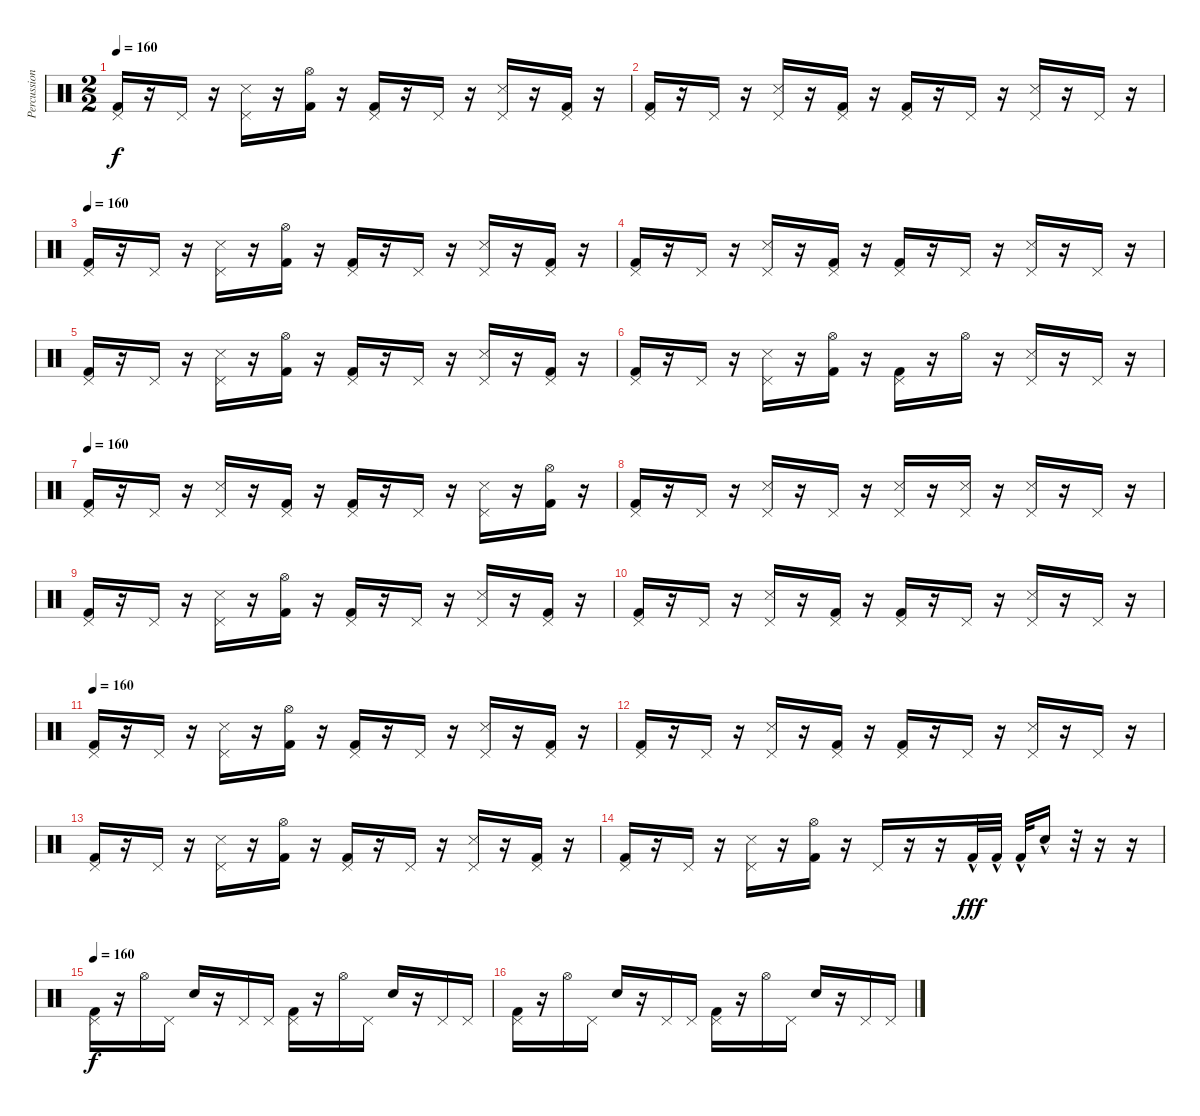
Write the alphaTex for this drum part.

\track ("Percussion" "Percussion") {instrument percussion}
\staff {score}
\articulation defaults
\ts (2 2)
\tempo 160
\clef neutral
\ks c
("Pedal Hi-Hat (hit)" "Kick (hit) 2").16{dy f} r.16 "Pedal Hi-Hat (hit)".16 r.16 ("Pedal Hi-Hat (hit)" "Metronome (hit)").16 r.16 ("Hi-Hat (open)" "Kick (hit) 2").16 r.16 ("Pedal Hi-Hat (hit)" "Kick (hit) 2").16 r.16 "Pedal Hi-Hat (hit)".16 r.16 ("Pedal Hi-Hat (hit)" "Metronome (hit)").16 r.16 ("Pedal Hi-Hat (hit)" "Kick (hit) 2").16 r.16 |
("Pedal Hi-Hat (hit)" "Kick (hit) 2").16 r.16 "Pedal Hi-Hat (hit)".16 r.16 ("Pedal Hi-Hat (hit)" "Metronome (hit)").16 r.16 ("Pedal Hi-Hat (hit)" "Kick (hit) 2").16 r.16 ("Pedal Hi-Hat (hit)" "Kick (hit) 2").16 r.16 "Pedal Hi-Hat (hit)".16 r.16 ("Pedal Hi-Hat (hit)" "Metronome (hit)").16 r.16 "Pedal Hi-Hat (hit)".16 r.16 |
\tempo 160
("Pedal Hi-Hat (hit)" "Kick (hit) 2").16 r.16 "Pedal Hi-Hat (hit)".16 r.16 ("Pedal Hi-Hat (hit)" "Metronome (hit)").16 r.16 ("Hi-Hat (open)" "Kick (hit) 2").16 r.16 ("Pedal Hi-Hat (hit)" "Kick (hit) 2").16 r.16 "Pedal Hi-Hat (hit)".16 r.16 ("Pedal Hi-Hat (hit)" "Metronome (hit)").16 r.16 ("Pedal Hi-Hat (hit)" "Kick (hit) 2").16 r.16 |
("Pedal Hi-Hat (hit)" "Kick (hit) 2").16 r.16 "Pedal Hi-Hat (hit)".16 r.16 ("Pedal Hi-Hat (hit)" "Metronome (hit)").16 r.16 ("Pedal Hi-Hat (hit)" "Kick (hit) 2").16 r.16 ("Pedal Hi-Hat (hit)" "Kick (hit) 2").16 r.16 "Pedal Hi-Hat (hit)".16 r.16 ("Pedal Hi-Hat (hit)" "Metronome (hit)").16 r.16 "Pedal Hi-Hat (hit)".16 r.16 |
("Pedal Hi-Hat (hit)" "Kick (hit) 2").16 r.16 "Pedal Hi-Hat (hit)".16 r.16 ("Pedal Hi-Hat (hit)" "Metronome (hit)").16 r.16 ("Hi-Hat (open)" "Kick (hit) 2").16 r.16 ("Pedal Hi-Hat (hit)" "Kick (hit) 2").16 r.16 "Pedal Hi-Hat (hit)".16 r.16 ("Pedal Hi-Hat (hit)" "Metronome (hit)").16 r.16 ("Pedal Hi-Hat (hit)" "Kick (hit) 2").16 r.16 |
("Pedal Hi-Hat (hit)" "Kick (hit) 2").16 r.16 "Pedal Hi-Hat (hit)".16 r.16 ("Pedal Hi-Hat (hit)" "Metronome (hit)").16 r.16 ("Hi-Hat (open)" "Kick (hit) 2").16 r.16 ("Pedal Hi-Hat (hit)" "Kick (hit) 2").16 r.16 "Hi-Hat (open)".16 r.16 ("Pedal Hi-Hat (hit)" "Metronome (hit)").16 r.16 "Pedal Hi-Hat (hit)".16 r.16 |
\tempo 160
("Pedal Hi-Hat (hit)" "Kick (hit) 2").16 r.16 "Pedal Hi-Hat (hit)".16 r.16 ("Pedal Hi-Hat (hit)" "Metronome (hit)").16 r.16 ("Pedal Hi-Hat (hit)" "Kick (hit) 2").16 r.16 ("Pedal Hi-Hat (hit)" "Kick (hit) 2").16 r.16 "Pedal Hi-Hat (hit)".16 r.16 ("Pedal Hi-Hat (hit)" "Metronome (hit)").16 r.16 ("Hi-Hat (open)" "Kick (hit) 2").16 r.16 |
("Pedal Hi-Hat (hit)" "Kick (hit) 2").16 r.16 "Pedal Hi-Hat (hit)".16 r.16 ("Pedal Hi-Hat (hit)" "Metronome (hit)").16 r.16 "Pedal Hi-Hat (hit)".16 r.16 ("Pedal Hi-Hat (hit)" "Metronome (hit)").16 r.16 ("Pedal Hi-Hat (hit)" "Metronome (hit)").16 r.16 ("Pedal Hi-Hat (hit)" "Metronome (hit)").16 r.16 "Pedal Hi-Hat (hit)".16 r.16 |
("Pedal Hi-Hat (hit)" "Kick (hit) 2").16 r.16 "Pedal Hi-Hat (hit)".16 r.16 ("Pedal Hi-Hat (hit)" "Metronome (hit)").16 r.16 ("Hi-Hat (open)" "Kick (hit) 2").16 r.16 ("Pedal Hi-Hat (hit)" "Kick (hit) 2").16 r.16 "Pedal Hi-Hat (hit)".16 r.16 ("Pedal Hi-Hat (hit)" "Metronome (hit)").16 r.16 ("Pedal Hi-Hat (hit)" "Kick (hit) 2").16 r.16 |
("Pedal Hi-Hat (hit)" "Kick (hit) 2").16 r.16 "Pedal Hi-Hat (hit)".16 r.16 ("Pedal Hi-Hat (hit)" "Metronome (hit)").16 r.16 ("Pedal Hi-Hat (hit)" "Kick (hit) 2").16 r.16 ("Pedal Hi-Hat (hit)" "Kick (hit) 2").16 r.16 "Pedal Hi-Hat (hit)".16 r.16 ("Pedal Hi-Hat (hit)" "Metronome (hit)").16 r.16 "Pedal Hi-Hat (hit)".16 r.16 |
\tempo 160
("Pedal Hi-Hat (hit)" "Kick (hit) 2").16 r.16 "Pedal Hi-Hat (hit)".16 r.16 ("Pedal Hi-Hat (hit)" "Metronome (hit)").16 r.16 ("Hi-Hat (open)" "Kick (hit) 2").16 r.16 ("Pedal Hi-Hat (hit)" "Kick (hit) 2").16 r.16 "Pedal Hi-Hat (hit)".16 r.16 ("Pedal Hi-Hat (hit)" "Metronome (hit)").16 r.16 ("Pedal Hi-Hat (hit)" "Kick (hit) 2").16 r.16 |
("Pedal Hi-Hat (hit)" "Kick (hit) 2").16 r.16 "Pedal Hi-Hat (hit)".16 r.16 ("Pedal Hi-Hat (hit)" "Metronome (hit)").16 r.16 ("Pedal Hi-Hat (hit)" "Kick (hit) 2").16 r.16 ("Pedal Hi-Hat (hit)" "Kick (hit) 2").16 r.16 "Pedal Hi-Hat (hit)".16 r.16 ("Pedal Hi-Hat (hit)" "Metronome (hit)").16 r.16 "Pedal Hi-Hat (hit)".16 r.16 |
("Pedal Hi-Hat (hit)" "Kick (hit) 2").16 r.16 "Pedal Hi-Hat (hit)".16 r.16 ("Pedal Hi-Hat (hit)" "Metronome (hit)").16 r.16 ("Hi-Hat (open)" "Kick (hit) 2").16 r.16 ("Pedal Hi-Hat (hit)" "Kick (hit) 2").16 r.16 "Pedal Hi-Hat (hit)".16 r.16 ("Pedal Hi-Hat (hit)" "Metronome (hit)").16 r.16 ("Pedal Hi-Hat (hit)" "Kick (hit) 2").16 r.16 |
("Pedal Hi-Hat (hit)" "Kick (hit) 2").16 r.16 "Pedal Hi-Hat (hit)".16 r.16 ("Pedal Hi-Hat (hit)" "Metronome (hit)").16 r.16 ("Hi-Hat (open)" "Kick (hit) 2").16 r.16 "Pedal Hi-Hat (hit)".16 r.16 r.16 "Kick (hit) 2"{hac}.32{dy fff} "Kick (hit) 2"{hac}.32 "Kick (hit) 2"{hac}.32 "Snare (hit) 2"{hac}.16 r.32 r.16 r.16 |
\tempo 160
("Kick (hit) 2" "Pedal Hi-Hat (hit)").16{dy f} r.16 "Hi-Hat (open)".16 "Pedal Hi-Hat (hit)".16 "Snare (hit) 2".16 r.16 "Pedal Hi-Hat (hit)".16 "Pedal Hi-Hat (hit)".16 ("Kick (hit) 2" "Pedal Hi-Hat (hit)").16 r.16 "Hi-Hat (open)".16 "Pedal Hi-Hat (hit)".16 "Snare (hit) 2".16 r.16 "Pedal Hi-Hat (hit)".16 "Pedal Hi-Hat (hit)".16 |
("Kick (hit) 2" "Pedal Hi-Hat (hit)").16 r.16 "Hi-Hat (open)".16 "Pedal Hi-Hat (hit)".16 "Snare (hit) 2".16 r.16 "Pedal Hi-Hat (hit)".16 "Pedal Hi-Hat (hit)".16 ("Kick (hit) 2" "Pedal Hi-Hat (hit)").16 r.16 "Hi-Hat (open)".16 "Pedal Hi-Hat (hit)".16 "Snare (hit) 2".16 r.16 "Pedal Hi-Hat (hit)".16 "Pedal Hi-Hat (hit)".16
